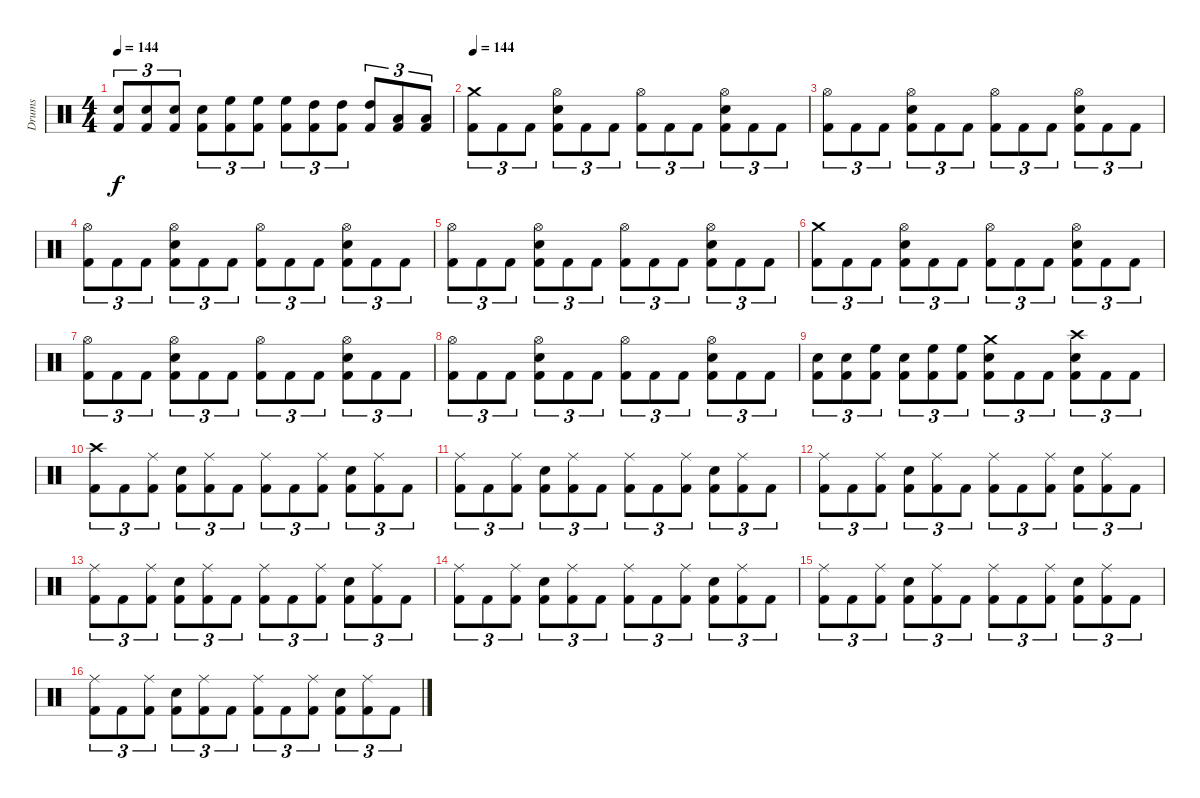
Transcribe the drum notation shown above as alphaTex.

\track ("Drums" "Drums") {instrument percussion}
\staff {score}
\articulation defaults
\ts (4 4)
\tempo 144
\clef neutral
\ks c
("Snare (hit) 2" "Kick (hit) 2").8{tu (3 2) dy f} ("Snare (hit) 2" "Kick (hit) 2").8{tu (3 2)} ("Snare (hit) 2" "Kick (hit) 2").8{tu (3 2)} ("Snare (hit) 2" "Kick (hit) 2").8{tu (3 2)} ("High Floor Tom (hit)" "Kick (hit) 2").8{tu (3 2)} ("High Floor Tom (hit)" "Kick (hit) 2").8{tu (3 2)} ("High Floor Tom (hit)" "Kick (hit) 2").8{tu (3 2)} ("High Tom (hit)" "Kick (hit) 2").8{tu (3 2)} ("High Tom (hit)" "Kick (hit) 2").8{tu (3 2)} ("High Tom (hit)" "Kick (hit) 2").8{tu (3 2)} ("Low Tom (hit)" "Kick (hit) 2").8{tu (3 2)} ("Low Tom (hit)" "Kick (hit) 2").8{tu (3 2)} |
\tempo 144
("Crash medium (hit)" "Kick (hit) 2").8{tu (3 2)} "Kick (hit) 2".8{tu (3 2)} "Kick (hit) 2".8{tu (3 2)} ("Hi-Hat (open)" "Snare (hit) 2" "Kick (hit) 2").8{tu (3 2)} "Kick (hit) 2".8{tu (3 2)} "Kick (hit) 2".8{tu (3 2)} ("Hi-Hat (open)" "Kick (hit) 2").8{tu (3 2)} "Kick (hit) 2".8{tu (3 2)} "Kick (hit) 2".8{tu (3 2)} ("Hi-Hat (open)" "Snare (hit) 2" "Kick (hit) 2").8{tu (3 2)} "Kick (hit) 2".8{tu (3 2)} "Kick (hit) 2".8{tu (3 2)} |
("Hi-Hat (open)" "Kick (hit) 2").8{tu (3 2)} "Kick (hit) 2".8{tu (3 2)} "Kick (hit) 2".8{tu (3 2)} ("Hi-Hat (open)" "Snare (hit) 2" "Kick (hit) 2").8{tu (3 2)} "Kick (hit) 2".8{tu (3 2)} "Kick (hit) 2".8{tu (3 2)} ("Hi-Hat (open)" "Kick (hit) 2").8{tu (3 2)} "Kick (hit) 2".8{tu (3 2)} "Kick (hit) 2".8{tu (3 2)} ("Hi-Hat (open)" "Snare (hit) 2" "Kick (hit) 2").8{tu (3 2)} "Kick (hit) 2".8{tu (3 2)} "Kick (hit) 2".8{tu (3 2)} |
("Hi-Hat (open)" "Kick (hit) 2").8{tu (3 2)} "Kick (hit) 2".8{tu (3 2)} "Kick (hit) 2".8{tu (3 2)} ("Hi-Hat (open)" "Snare (hit) 2" "Kick (hit) 2").8{tu (3 2)} "Kick (hit) 2".8{tu (3 2)} "Kick (hit) 2".8{tu (3 2)} ("Hi-Hat (open)" "Kick (hit) 2").8{tu (3 2)} "Kick (hit) 2".8{tu (3 2)} "Kick (hit) 2".8{tu (3 2)} ("Hi-Hat (open)" "Snare (hit) 2" "Kick (hit) 2").8{tu (3 2)} "Kick (hit) 2".8{tu (3 2)} "Kick (hit) 2".8{tu (3 2)} |
("Hi-Hat (open)" "Kick (hit) 2").8{tu (3 2)} "Kick (hit) 2".8{tu (3 2)} "Kick (hit) 2".8{tu (3 2)} ("Hi-Hat (open)" "Snare (hit) 2" "Kick (hit) 2").8{tu (3 2)} "Kick (hit) 2".8{tu (3 2)} "Kick (hit) 2".8{tu (3 2)} ("Hi-Hat (open)" "Kick (hit) 2").8{tu (3 2)} "Kick (hit) 2".8{tu (3 2)} "Kick (hit) 2".8{tu (3 2)} ("Hi-Hat (open)" "Snare (hit) 2" "Kick (hit) 2").8{tu (3 2)} "Kick (hit) 2".8{tu (3 2)} "Kick (hit) 2".8{tu (3 2)} |
("Crash medium (hit)" "Kick (hit) 2").8{tu (3 2)} "Kick (hit) 2".8{tu (3 2)} "Kick (hit) 2".8{tu (3 2)} ("Hi-Hat (open)" "Snare (hit) 2" "Kick (hit) 2").8{tu (3 2)} "Kick (hit) 2".8{tu (3 2)} "Kick (hit) 2".8{tu (3 2)} ("Hi-Hat (open)" "Kick (hit) 2").8{tu (3 2)} "Kick (hit) 2".8{tu (3 2)} "Kick (hit) 2".8{tu (3 2)} ("Hi-Hat (open)" "Snare (hit) 2" "Kick (hit) 2").8{tu (3 2)} "Kick (hit) 2".8{tu (3 2)} "Kick (hit) 2".8{tu (3 2)} |
("Hi-Hat (open)" "Kick (hit) 2").8{tu (3 2)} "Kick (hit) 2".8{tu (3 2)} "Kick (hit) 2".8{tu (3 2)} ("Hi-Hat (open)" "Snare (hit) 2" "Kick (hit) 2").8{tu (3 2)} "Kick (hit) 2".8{tu (3 2)} "Kick (hit) 2".8{tu (3 2)} ("Hi-Hat (open)" "Kick (hit) 2").8{tu (3 2)} "Kick (hit) 2".8{tu (3 2)} "Kick (hit) 2".8{tu (3 2)} ("Hi-Hat (open)" "Snare (hit) 2" "Kick (hit) 2").8{tu (3 2)} "Kick (hit) 2".8{tu (3 2)} "Kick (hit) 2".8{tu (3 2)} |
("Hi-Hat (open)" "Kick (hit) 2").8{tu (3 2)} "Kick (hit) 2".8{tu (3 2)} "Kick (hit) 2".8{tu (3 2)} ("Hi-Hat (open)" "Snare (hit) 2" "Kick (hit) 2").8{tu (3 2)} "Kick (hit) 2".8{tu (3 2)} "Kick (hit) 2".8{tu (3 2)} ("Hi-Hat (open)" "Kick (hit) 2").8{tu (3 2)} "Kick (hit) 2".8{tu (3 2)} "Kick (hit) 2".8{tu (3 2)} ("Hi-Hat (open)" "Snare (hit) 2" "Kick (hit) 2").8{tu (3 2)} "Kick (hit) 2".8{tu (3 2)} "Kick (hit) 2".8{tu (3 2)} |
("Snare (hit) 2" "Kick (hit) 2").8{tu (3 2)} ("Snare (hit) 2" "Kick (hit) 2").8{tu (3 2)} ("High Floor Tom (hit)" "Kick (hit) 2").8{tu (3 2)} ("Snare (hit) 2" "Kick (hit) 2").8{tu (3 2)} ("High Floor Tom (hit)" "Kick (hit) 2").8{tu (3 2)} ("High Floor Tom (hit)" "Kick (hit) 2").8{tu (3 2)} ("Snare (hit) 2" "Crash medium (hit)" "Kick (hit) 2").8{tu (3 2)} "Kick (hit) 2".8{tu (3 2)} "Kick (hit) 2".8{tu (3 2)} ("Crash high (hit)" "Snare (hit) 2" "Kick (hit) 2").8{tu (3 2)} "Kick (hit) 2".8{tu (3 2)} "Kick (hit) 2".8{tu (3 2)} |
("Crash high (hit)" "Kick (hit) 2").8{tu (3 2)} "Kick (hit) 2".8{tu (3 2)} ("Ride (middle)" "Kick (hit) 2").8{tu (3 2)} ("Snare (hit) 2" "Kick (hit) 2").8{tu (3 2)} ("Ride (middle)" "Kick (hit) 2").8{tu (3 2)} "Kick (hit) 2".8{tu (3 2)} ("Ride (middle)" "Kick (hit) 2").8{tu (3 2)} "Kick (hit) 2".8{tu (3 2)} ("Ride (middle)" "Kick (hit) 2").8{tu (3 2)} ("Snare (hit) 2" "Kick (hit) 2").8{tu (3 2)} ("Ride (middle)" "Kick (hit) 2").8{tu (3 2)} "Kick (hit) 2".8{tu (3 2)} |
("Ride (middle)" "Kick (hit) 2").8{tu (3 2)} "Kick (hit) 2".8{tu (3 2)} ("Ride (middle)" "Kick (hit) 2").8{tu (3 2)} ("Snare (hit) 2" "Kick (hit) 2").8{tu (3 2)} ("Ride (middle)" "Kick (hit) 2").8{tu (3 2)} "Kick (hit) 2".8{tu (3 2)} ("Ride (middle)" "Kick (hit) 2").8{tu (3 2)} "Kick (hit) 2".8{tu (3 2)} ("Ride (middle)" "Kick (hit) 2").8{tu (3 2)} ("Snare (hit) 2" "Kick (hit) 2").8{tu (3 2)} ("Ride (middle)" "Kick (hit) 2").8{tu (3 2)} "Kick (hit) 2".8{tu (3 2)} |
("Ride (middle)" "Kick (hit) 2").8{tu (3 2)} "Kick (hit) 2".8{tu (3 2)} ("Ride (middle)" "Kick (hit) 2").8{tu (3 2)} ("Snare (hit) 2" "Kick (hit) 2").8{tu (3 2)} ("Ride (middle)" "Kick (hit) 2").8{tu (3 2)} "Kick (hit) 2".8{tu (3 2)} ("Ride (middle)" "Kick (hit) 2").8{tu (3 2)} "Kick (hit) 2".8{tu (3 2)} ("Ride (middle)" "Kick (hit) 2").8{tu (3 2)} ("Snare (hit) 2" "Kick (hit) 2").8{tu (3 2)} ("Ride (middle)" "Kick (hit) 2").8{tu (3 2)} "Kick (hit) 2".8{tu (3 2)} |
("Ride (middle)" "Kick (hit) 2").8{tu (3 2)} "Kick (hit) 2".8{tu (3 2)} ("Ride (middle)" "Kick (hit) 2").8{tu (3 2)} ("Snare (hit) 2" "Kick (hit) 2").8{tu (3 2)} ("Ride (middle)" "Kick (hit) 2").8{tu (3 2)} "Kick (hit) 2".8{tu (3 2)} ("Ride (middle)" "Kick (hit) 2").8{tu (3 2)} "Kick (hit) 2".8{tu (3 2)} ("Ride (middle)" "Kick (hit) 2").8{tu (3 2)} ("Snare (hit) 2" "Kick (hit) 2").8{tu (3 2)} ("Ride (middle)" "Kick (hit) 2").8{tu (3 2)} "Kick (hit) 2".8{tu (3 2)} |
("Ride (middle)" "Kick (hit) 2").8{tu (3 2)} "Kick (hit) 2".8{tu (3 2)} ("Ride (middle)" "Kick (hit) 2").8{tu (3 2)} ("Snare (hit) 2" "Kick (hit) 2").8{tu (3 2)} ("Ride (middle)" "Kick (hit) 2").8{tu (3 2)} "Kick (hit) 2".8{tu (3 2)} ("Ride (middle)" "Kick (hit) 2").8{tu (3 2)} "Kick (hit) 2".8{tu (3 2)} ("Ride (middle)" "Kick (hit) 2").8{tu (3 2)} ("Snare (hit) 2" "Kick (hit) 2").8{tu (3 2)} ("Ride (middle)" "Kick (hit) 2").8{tu (3 2)} "Kick (hit) 2".8{tu (3 2)} |
("Ride (middle)" "Kick (hit) 2").8{tu (3 2)} "Kick (hit) 2".8{tu (3 2)} ("Ride (middle)" "Kick (hit) 2").8{tu (3 2)} ("Snare (hit) 2" "Kick (hit) 2").8{tu (3 2)} ("Ride (middle)" "Kick (hit) 2").8{tu (3 2)} "Kick (hit) 2".8{tu (3 2)} ("Ride (middle)" "Kick (hit) 2").8{tu (3 2)} "Kick (hit) 2".8{tu (3 2)} ("Ride (middle)" "Kick (hit) 2").8{tu (3 2)} ("Snare (hit) 2" "Kick (hit) 2").8{tu (3 2)} ("Ride (middle)" "Kick (hit) 2").8{tu (3 2)} "Kick (hit) 2".8{tu (3 2)} |
("Ride (middle)" "Kick (hit) 2").8{tu (3 2)} "Kick (hit) 2".8{tu (3 2)} ("Ride (middle)" "Kick (hit) 2").8{tu (3 2)} ("Snare (hit) 2" "Kick (hit) 2").8{tu (3 2)} ("Ride (middle)" "Kick (hit) 2").8{tu (3 2)} "Kick (hit) 2".8{tu (3 2)} ("Ride (middle)" "Kick (hit) 2").8{tu (3 2)} "Kick (hit) 2".8{tu (3 2)} ("Ride (middle)" "Kick (hit) 2").8{tu (3 2)} ("Snare (hit) 2" "Kick (hit) 2").8{tu (3 2)} ("Ride (middle)" "Kick (hit) 2").8{tu (3 2)} "Kick (hit) 2".8{tu (3 2)}
